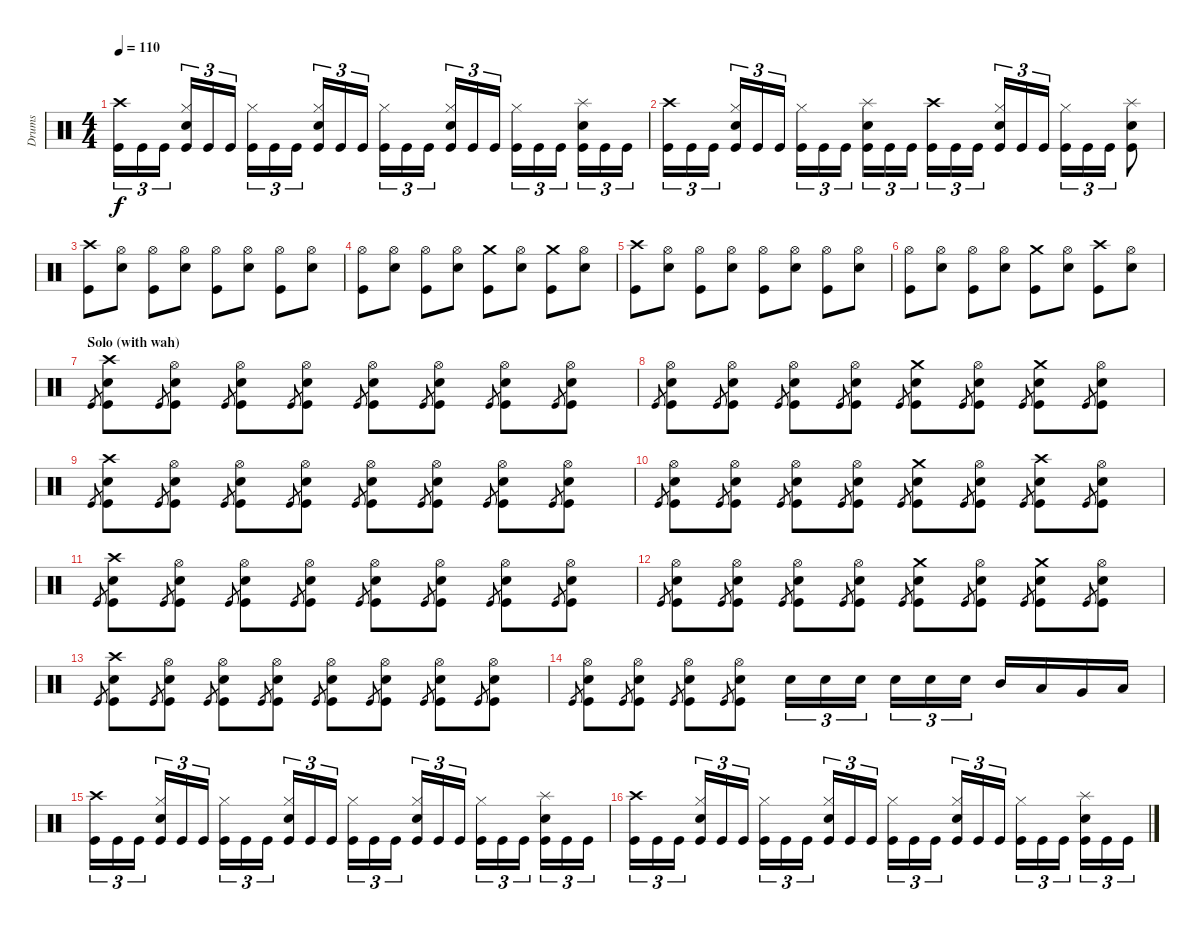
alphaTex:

\track ("Drums" "Drums") {instrument percussion}
\staff {score}
\articulation defaults
\ts (4 4)
\tempo 110
\clef neutral
\ks c
("Crash high (hit)" "Kick (hit)").16{tu (3 2) dy f} "Kick (hit)".16{tu (3 2)} "Kick (hit)".16{tu (3 2)} ("Hi-Hat (closed)" "Snare (hit) 2" "Kick (hit)").16{tu (3 2)} "Kick (hit)".16{tu (3 2)} "Kick (hit)".16{tu (3 2)} ("Hi-Hat (closed)" "Kick (hit)").16{tu (3 2)} "Kick (hit)".16{tu (3 2)} "Kick (hit)".16{tu (3 2)} ("Hi-Hat (closed)" "Snare (hit) 2" "Kick (hit)").16{tu (3 2)} "Kick (hit)".16{tu (3 2)} "Kick (hit)".16{tu (3 2)} ("Hi-Hat (closed)" "Kick (hit)").16{tu (3 2)} "Kick (hit)".16{tu (3 2)} "Kick (hit)".16{tu (3 2)} ("Hi-Hat (closed)" "Snare (hit) 2" "Kick (hit)").16{tu (3 2)} "Kick (hit)".16{tu (3 2)} "Kick (hit)".16{tu (3 2)} ("Hi-Hat (closed)" "Kick (hit)").16{tu (3 2)} "Kick (hit)".16{tu (3 2)} "Kick (hit)".16{tu (3 2)} ("Splash (hit)" "Snare (hit) 2" "Kick (hit)").16{tu (3 2)} "Kick (hit)".16{tu (3 2)} "Kick (hit)".16{tu (3 2)} |
("Crash high (hit)" "Kick (hit)").16{tu (3 2)} "Kick (hit)".16{tu (3 2)} "Kick (hit)".16{tu (3 2)} ("Hi-Hat (closed)" "Snare (hit) 2" "Kick (hit)").16{tu (3 2)} "Kick (hit)".16{tu (3 2)} "Kick (hit)".16{tu (3 2)} ("Hi-Hat (closed)" "Kick (hit)").16{tu (3 2)} "Kick (hit)".16{tu (3 2)} "Kick (hit)".16{tu (3 2)} ("Splash (hit)" "Snare (hit) 2" "Kick (hit)").16{tu (3 2)} "Kick (hit)".16{tu (3 2)} "Kick (hit)".16{tu (3 2)} ("Crash high (hit)" "Kick (hit)").16{tu (3 2)} "Kick (hit)".16{tu (3 2)} "Kick (hit)".16{tu (3 2)} ("Hi-Hat (closed)" "Snare (hit) 2" "Kick (hit)").16{tu (3 2)} "Kick (hit)".16{tu (3 2)} "Kick (hit)".16{tu (3 2)} ("Hi-Hat (closed)" "Kick (hit)").16{tu (3 2)} "Kick (hit)".16{tu (3 2)} "Kick (hit)".16{tu (3 2)} ("Splash (hit)" "Snare (hit) 2" "Kick (hit)").8 |
("Crash high (hit)" "Kick (hit)").8 ("Hi-Hat (open)" "Snare (hit) 2").8 ("Hi-Hat (open)" "Kick (hit)").8 ("Hi-Hat (open)" "Snare (hit) 2").8 ("Hi-Hat (open)" "Kick (hit)").8 ("Hi-Hat (open)" "Snare (hit) 2").8 ("Hi-Hat (open)" "Kick (hit)").8 ("Hi-Hat (open)" "Snare (hit) 2").8 |
("Hi-Hat (open)" "Kick (hit)").8 ("Hi-Hat (open)" "Snare (hit) 2").8 ("Hi-Hat (open)" "Kick (hit)").8 ("Hi-Hat (open)" "Snare (hit) 2").8 ("Crash medium (hit)" "Kick (hit)").8 ("Hi-Hat (open)" "Snare (hit) 2").8 ("Crash medium (hit)" "Kick (hit)").8 ("Hi-Hat (open)" "Snare (hit) 2").8 |
("Crash high (hit)" "Kick (hit)").8 ("Hi-Hat (open)" "Snare (hit) 2").8 ("Hi-Hat (open)" "Kick (hit)").8 ("Hi-Hat (open)" "Snare (hit) 2").8 ("Hi-Hat (open)" "Kick (hit)").8 ("Hi-Hat (open)" "Snare (hit) 2").8 ("Hi-Hat (open)" "Kick (hit)").8 ("Hi-Hat (open)" "Snare (hit) 2").8 |
("Hi-Hat (open)" "Kick (hit)").8 ("Hi-Hat (open)" "Snare (hit) 2").8 ("Hi-Hat (open)" "Kick (hit)").8 ("Hi-Hat (open)" "Snare (hit) 2").8 ("Crash medium (hit)" "Kick (hit)").8 ("Hi-Hat (open)" "Snare (hit) 2").8 ("Crash high (hit)" "Kick (hit)").8 ("Hi-Hat (open)" "Snare (hit) 2").8 |
\section ("" "Solo (with wah)")
"Kick (hit)".8{gr} ("Crash high (hit)" "Snare (hit) 2" "Kick (hit)").8 "Kick (hit)".8{gr} ("Hi-Hat (open)" "Snare (hit) 2" "Kick (hit)").8 "Kick (hit)".8{gr} ("Hi-Hat (open)" "Snare (hit) 2" "Kick (hit)").8 "Kick (hit)".8{gr} ("Hi-Hat (open)" "Snare (hit) 2" "Kick (hit)").8 "Kick (hit)".8{gr} ("Hi-Hat (open)" "Snare (hit) 2" "Kick (hit)").8 "Kick (hit)".8{gr} ("Hi-Hat (open)" "Snare (hit) 2" "Kick (hit)").8 "Kick (hit)".8{gr} ("Hi-Hat (open)" "Snare (hit) 2" "Kick (hit)").8 "Kick (hit)".8{gr} ("Hi-Hat (open)" "Snare (hit) 2" "Kick (hit)").8 |
"Kick (hit)".8{gr} ("Hi-Hat (open)" "Snare (hit) 2" "Kick (hit)").8 "Kick (hit)".8{gr} ("Hi-Hat (open)" "Snare (hit) 2" "Kick (hit)").8 "Kick (hit)".8{gr} ("Hi-Hat (open)" "Snare (hit) 2" "Kick (hit)").8 "Kick (hit)".8{gr} ("Hi-Hat (open)" "Snare (hit) 2" "Kick (hit)").8 "Kick (hit)".8{gr} ("Crash medium (hit)" "Snare (hit) 2" "Kick (hit)").8 "Kick (hit)".8{gr} ("Hi-Hat (open)" "Snare (hit) 2" "Kick (hit)").8 "Kick (hit)".8{gr} ("Crash medium (hit)" "Snare (hit) 2" "Kick (hit)").8 "Kick (hit)".8{gr} ("Hi-Hat (open)" "Snare (hit) 2" "Kick (hit)").8 |
"Kick (hit)".8{gr} ("Crash high (hit)" "Snare (hit) 2" "Kick (hit)").8 "Kick (hit)".8{gr} ("Hi-Hat (open)" "Snare (hit) 2" "Kick (hit)").8 "Kick (hit)".8{gr} ("Hi-Hat (open)" "Snare (hit) 2" "Kick (hit)").8 "Kick (hit)".8{gr} ("Hi-Hat (open)" "Snare (hit) 2" "Kick (hit)").8 "Kick (hit)".8{gr} ("Hi-Hat (open)" "Snare (hit) 2" "Kick (hit)").8 "Kick (hit)".8{gr} ("Hi-Hat (open)" "Snare (hit) 2" "Kick (hit)").8 "Kick (hit)".8{gr} ("Hi-Hat (open)" "Snare (hit) 2" "Kick (hit)").8 "Kick (hit)".8{gr} ("Hi-Hat (open)" "Snare (hit) 2" "Kick (hit)").8 |
"Kick (hit)".8{gr} ("Hi-Hat (open)" "Snare (hit) 2" "Kick (hit)").8 "Kick (hit)".8{gr} ("Hi-Hat (open)" "Snare (hit) 2" "Kick (hit)").8 "Kick (hit)".8{gr} ("Hi-Hat (open)" "Snare (hit) 2" "Kick (hit)").8 "Kick (hit)".8{gr} ("Hi-Hat (open)" "Snare (hit) 2" "Kick (hit)").8 "Kick (hit)".8{gr} ("Crash medium (hit)" "Snare (hit) 2" "Kick (hit)").8 "Kick (hit)".8{gr} ("Hi-Hat (open)" "Snare (hit) 2" "Kick (hit)").8 "Kick (hit)".8{gr} ("Crash high (hit)" "Snare (hit) 2" "Kick (hit)").8 "Kick (hit)".8{gr} ("Hi-Hat (open)" "Snare (hit) 2" "Kick (hit)").8 |
"Kick (hit)".8{gr} ("Crash high (hit)" "Snare (hit) 2" "Kick (hit)").8 "Kick (hit)".8{gr} ("Hi-Hat (open)" "Snare (hit) 2" "Kick (hit)").8 "Kick (hit)".8{gr} ("Hi-Hat (open)" "Snare (hit) 2" "Kick (hit)").8 "Kick (hit)".8{gr} ("Hi-Hat (open)" "Snare (hit) 2" "Kick (hit)").8 "Kick (hit)".8{gr} ("Hi-Hat (open)" "Snare (hit) 2" "Kick (hit)").8 "Kick (hit)".8{gr} ("Hi-Hat (open)" "Snare (hit) 2" "Kick (hit)").8 "Kick (hit)".8{gr} ("Hi-Hat (open)" "Snare (hit) 2" "Kick (hit)").8 "Kick (hit)".8{gr} ("Hi-Hat (open)" "Snare (hit) 2" "Kick (hit)").8 |
"Kick (hit)".8{gr} ("Hi-Hat (open)" "Snare (hit) 2" "Kick (hit)").8 "Kick (hit)".8{gr} ("Hi-Hat (open)" "Snare (hit) 2" "Kick (hit)").8 "Kick (hit)".8{gr} ("Hi-Hat (open)" "Snare (hit) 2" "Kick (hit)").8 "Kick (hit)".8{gr} ("Hi-Hat (open)" "Snare (hit) 2" "Kick (hit)").8 "Kick (hit)".8{gr} ("Crash medium (hit)" "Snare (hit) 2" "Kick (hit)").8 "Kick (hit)".8{gr} ("Hi-Hat (open)" "Snare (hit) 2" "Kick (hit)").8 "Kick (hit)".8{gr} ("Crash medium (hit)" "Snare (hit) 2" "Kick (hit)").8 "Kick (hit)".8{gr} ("Hi-Hat (open)" "Snare (hit) 2" "Kick (hit)").8 |
"Kick (hit)".8{gr} ("Crash high (hit)" "Snare (hit) 2" "Kick (hit)").8 "Kick (hit)".8{gr} ("Hi-Hat (open)" "Snare (hit) 2" "Kick (hit)").8 "Kick (hit)".8{gr} ("Hi-Hat (open)" "Snare (hit) 2" "Kick (hit)").8 "Kick (hit)".8{gr} ("Hi-Hat (open)" "Snare (hit) 2" "Kick (hit)").8 "Kick (hit)".8{gr} ("Hi-Hat (open)" "Snare (hit) 2" "Kick (hit)").8 "Kick (hit)".8{gr} ("Hi-Hat (open)" "Snare (hit) 2" "Kick (hit)").8 "Kick (hit)".8{gr} ("Hi-Hat (open)" "Snare (hit) 2" "Kick (hit)").8 "Kick (hit)".8{gr} ("Hi-Hat (open)" "Snare (hit) 2" "Kick (hit)").8 |
"Kick (hit)".8{gr} ("Hi-Hat (open)" "Snare (hit) 2" "Kick (hit)").8 "Kick (hit)".8{gr} ("Hi-Hat (open)" "Snare (hit) 2" "Kick (hit)").8 "Kick (hit)".8{gr} ("Hi-Hat (open)" "Snare (hit) 2" "Kick (hit)").8 "Kick (hit)".8{gr} ("Hi-Hat (open)" "Snare (hit) 2" "Kick (hit)").8 "Snare (hit) 2".16{tu (3 2)} "Snare (hit) 2".16{tu (3 2)} "Snare (hit) 2".16{tu (3 2)} "Snare (hit) 2".16{tu (3 2)} "Snare (hit) 2".16{tu (3 2)} "Snare (hit) 2".16{tu (3 2)} "Mid Tom (hit)".16 "Low Tom (hit)".16 "Very Low Tom (hit)".16 "Low Floor Tom (hit)".16 |
("Crash high (hit)" "Kick (hit)").16{tu (3 2)} "Kick (hit)".16{tu (3 2)} "Kick (hit)".16{tu (3 2)} ("Hi-Hat (closed)" "Snare (hit) 2" "Kick (hit)").16{tu (3 2)} "Kick (hit)".16{tu (3 2)} "Kick (hit)".16{tu (3 2)} ("Hi-Hat (closed)" "Kick (hit)").16{tu (3 2)} "Kick (hit)".16{tu (3 2)} "Kick (hit)".16{tu (3 2)} ("Hi-Hat (closed)" "Snare (hit) 2" "Kick (hit)").16{tu (3 2)} "Kick (hit)".16{tu (3 2)} "Kick (hit)".16{tu (3 2)} ("Hi-Hat (closed)" "Kick (hit)").16{tu (3 2)} "Kick (hit)".16{tu (3 2)} "Kick (hit)".16{tu (3 2)} ("Hi-Hat (closed)" "Snare (hit) 2" "Kick (hit)").16{tu (3 2)} "Kick (hit)".16{tu (3 2)} "Kick (hit)".16{tu (3 2)} ("Hi-Hat (closed)" "Kick (hit)").16{tu (3 2)} "Kick (hit)".16{tu (3 2)} "Kick (hit)".16{tu (3 2)} ("Splash (hit)" "Snare (hit) 2" "Kick (hit)").16{tu (3 2)} "Kick (hit)".16{tu (3 2)} "Kick (hit)".16{tu (3 2)} |
("Crash high (hit)" "Kick (hit)").16{tu (3 2)} "Kick (hit)".16{tu (3 2)} "Kick (hit)".16{tu (3 2)} ("Hi-Hat (closed)" "Snare (hit) 2" "Kick (hit)").16{tu (3 2)} "Kick (hit)".16{tu (3 2)} "Kick (hit)".16{tu (3 2)} ("Hi-Hat (closed)" "Kick (hit)").16{tu (3 2)} "Kick (hit)".16{tu (3 2)} "Kick (hit)".16{tu (3 2)} ("Hi-Hat (closed)" "Snare (hit) 2" "Kick (hit)").16{tu (3 2)} "Kick (hit)".16{tu (3 2)} "Kick (hit)".16{tu (3 2)} ("Hi-Hat (closed)" "Kick (hit)").16{tu (3 2)} "Kick (hit)".16{tu (3 2)} "Kick (hit)".16{tu (3 2)} ("Hi-Hat (closed)" "Snare (hit) 2" "Kick (hit)").16{tu (3 2)} "Kick (hit)".16{tu (3 2)} "Kick (hit)".16{tu (3 2)} ("Hi-Hat (closed)" "Kick (hit)").16{tu (3 2)} "Kick (hit)".16{tu (3 2)} "Kick (hit)".16{tu (3 2)} ("Splash (hit)" "Snare (hit) 2" "Kick (hit)").16{tu (3 2)} "Kick (hit)".16{tu (3 2)} "Kick (hit)".16{tu (3 2)}
